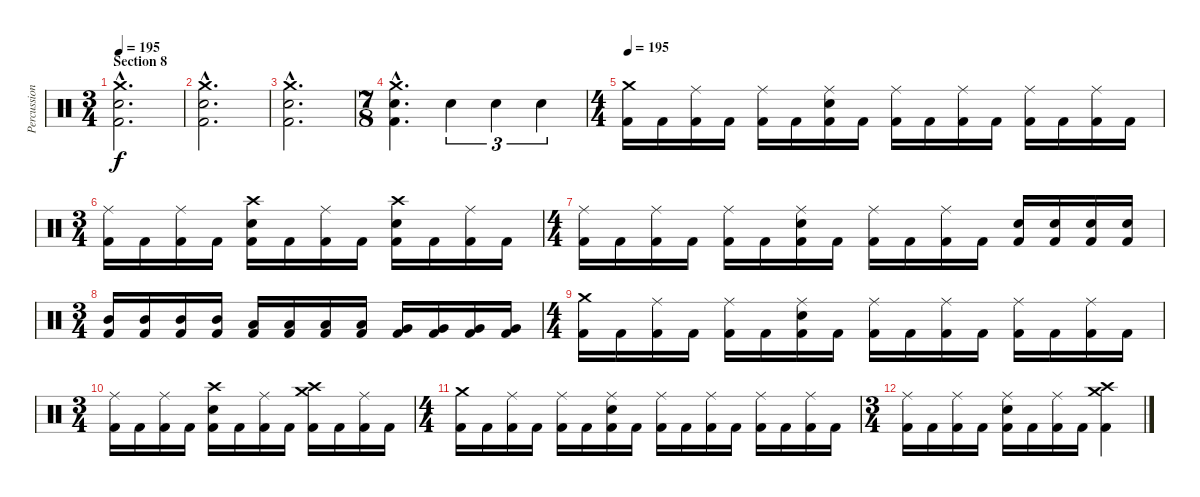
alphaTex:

\track ("Percussion" "Percussion") {instrument percussion}
\staff {score}
\articulation defaults
\ts (3 4)
\section ("" "Section 8")
\tempo 195
\clef neutral
\ks c
("Crash medium (hit)"{hac} "Electric Snare (hit)"{hac} "Kick (hit) 2"{hac}).2{d dy f} |
("Crash medium (hit)"{hac} "Electric Snare (hit)"{hac} "Kick (hit) 2"{hac}).2{d} |
("Crash medium (hit)"{hac} "Electric Snare (hit)"{hac} "Kick (hit) 2"{hac}).2{d} |
\ts (7 8)
("Crash medium (hit)"{hac} "Electric Snare (hit)"{hac} "Kick (hit) 2"{hac}).4{d} "Electric Snare (hit)".4{tu (3 2)} "Electric Snare (hit)".4{tu (3 2)} "Electric Snare (hit)".4{tu (3 2)} |
\ts (4 4)
\tempo 195
("Crash medium (hit)" "Kick (hit) 2").16 "Kick (hit) 2".16 ("Ride (middle)" "Kick (hit) 2").16 "Kick (hit) 2".16 ("Ride (middle)" "Kick (hit) 2").16 "Kick (hit) 2".16 ("Ride (middle)" "Electric Snare (hit)" "Kick (hit) 2").16 "Kick (hit) 2".16 ("Ride (middle)" "Kick (hit) 2").16 "Kick (hit) 2".16 ("Ride (middle)" "Kick (hit) 2").16 "Kick (hit) 2".16 ("Ride (middle)" "Kick (hit) 2").16 "Kick (hit) 2".16 ("Ride (middle)" "Kick (hit) 2").16 "Kick (hit) 2".16 |
\ts (3 4)
("Ride (middle)" "Kick (hit) 2").16 "Kick (hit) 2".16 ("Ride (middle)" "Kick (hit) 2").16 "Kick (hit) 2".16 ("Crash high (hit)" "Electric Snare (hit)" "Kick (hit) 2").16 "Kick (hit) 2".16 ("Ride (middle)" "Kick (hit) 2").16 "Kick (hit) 2".16 ("Crash high (hit)" "Electric Snare (hit)" "Kick (hit) 2").16 "Kick (hit) 2".16 ("Ride (middle)" "Kick (hit) 2").16 "Kick (hit) 2".16 |
\ts (4 4)
("Ride (middle)" "Kick (hit) 2").16 "Kick (hit) 2".16 ("Ride (middle)" "Kick (hit) 2").16 "Kick (hit) 2".16 ("Ride (middle)" "Kick (hit) 2").16 "Kick (hit) 2".16 ("Ride (middle)" "Electric Snare (hit)" "Kick (hit) 2").16 "Kick (hit) 2".16 ("Ride (middle)" "Kick (hit) 2").16 "Kick (hit) 2".16 ("Ride (middle)" "Kick (hit) 2").16 "Kick (hit) 2".16 ("Electric Snare (hit)" "Kick (hit) 2").16 ("Electric Snare (hit)" "Kick (hit) 2").16 ("Electric Snare (hit)" "Kick (hit) 2").16 ("Electric Snare (hit)" "Kick (hit) 2").16 |
\ts (3 4)
("Mid Tom (hit)" "Kick (hit) 2").16 ("Mid Tom (hit)" "Kick (hit) 2").16 ("Mid Tom (hit)" "Kick (hit) 2").16 ("Mid Tom (hit)" "Kick (hit) 2").16 ("Low Tom (hit)" "Kick (hit) 2").16 ("Low Tom (hit)" "Kick (hit) 2").16 ("Low Tom (hit)" "Kick (hit) 2").16 ("Low Tom (hit)" "Kick (hit) 2").16 ("Very Low Tom (hit)" "Kick (hit) 2").16 ("Very Low Tom (hit)" "Kick (hit) 2").16 ("Very Low Tom (hit)" "Kick (hit) 2").16 ("Very Low Tom (hit)" "Kick (hit) 2").16 |
\ts (4 4)
("Crash medium (hit)" "Kick (hit) 2").16 "Kick (hit) 2".16 ("Ride (middle)" "Kick (hit) 2").16 "Kick (hit) 2".16 ("Ride (middle)" "Kick (hit) 2").16 "Kick (hit) 2".16 ("Ride (middle)" "Electric Snare (hit)" "Kick (hit) 2").16 "Kick (hit) 2".16 ("Ride (middle)" "Kick (hit) 2").16 "Kick (hit) 2".16 ("Ride (middle)" "Kick (hit) 2").16 "Kick (hit) 2".16 ("Ride (middle)" "Kick (hit) 2").16 "Kick (hit) 2".16 ("Ride (middle)" "Kick (hit) 2").16 "Kick (hit) 2".16 |
\ts (3 4)
("Ride (middle)" "Kick (hit) 2").16 "Kick (hit) 2".16 ("Ride (middle)" "Kick (hit) 2").16 "Kick (hit) 2".16 ("Crash high (hit)" "Electric Snare (hit)" "Kick (hit) 2").16 "Kick (hit) 2".16 ("Ride (middle)" "Kick (hit) 2").16 "Kick (hit) 2".16 ("Crash high (hit)" "Crash medium (hit)" "Kick (hit) 2").16 "Kick (hit) 2".16 ("Ride (middle)" "Kick (hit) 2").16 "Kick (hit) 2".16 |
\ts (4 4)
("Crash medium (hit)" "Kick (hit) 2").16 "Kick (hit) 2".16 ("Ride (middle)" "Kick (hit) 2").16 "Kick (hit) 2".16 ("Ride (middle)" "Kick (hit) 2").16 "Kick (hit) 2".16 ("Ride (middle)" "Electric Snare (hit)" "Kick (hit) 2").16 "Kick (hit) 2".16 ("Ride (middle)" "Kick (hit) 2").16 "Kick (hit) 2".16 ("Ride (middle)" "Kick (hit) 2").16 "Kick (hit) 2".16 ("Ride (middle)" "Kick (hit) 2").16 "Kick (hit) 2".16 ("Ride (middle)" "Kick (hit) 2").16 "Kick (hit) 2".16 |
\ts (3 4)
("Ride (middle)" "Kick (hit) 2").16 "Kick (hit) 2".16 ("Ride (middle)" "Kick (hit) 2").16 "Kick (hit) 2".16 ("Ride (middle)" "Electric Snare (hit)" "Kick (hit) 2").16 "Kick (hit) 2".16 ("Ride (middle)" "Kick (hit) 2").16 "Kick (hit) 2".16 ("Crash high (hit)" "Crash medium (hit)" "Kick (hit) 2").4
